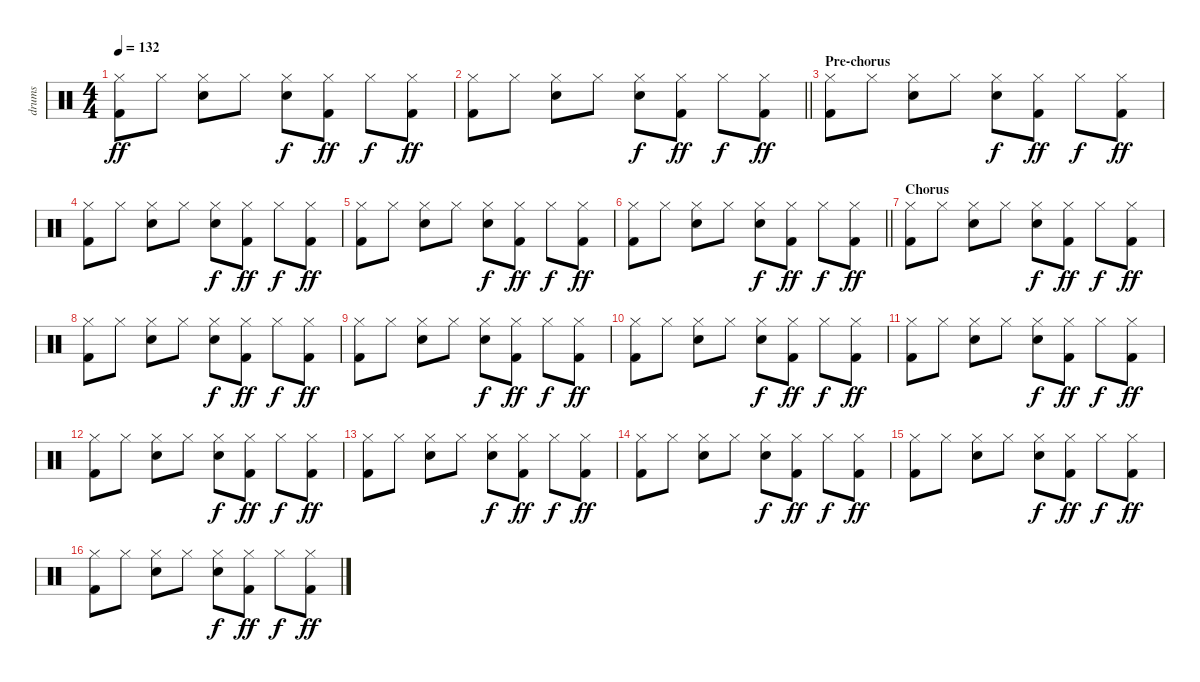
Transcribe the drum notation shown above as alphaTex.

\track ("drums" "drums") {instrument percussion}
\staff {score}
\articulation defaults
\ts (4 4)
\tempo 132
\clef neutral
\ks c
("Hi-Hat (closed)" "Kick (hit) 2").8{dy ff} "Hi-Hat (closed)".8 ("Hi-Hat (closed)" "Electric Snare (hit)").8 "Hi-Hat (closed)".8 ("Hi-Hat (closed)" "Electric Snare (hit)").8{dy f} ("Kick (hit) 2" "Hi-Hat (closed)").8{dy ff} "Hi-Hat (closed)".8{dy f} ("Kick (hit) 2" "Hi-Hat (closed)").8{dy ff} |
\barLineRight lightlight
("Hi-Hat (closed)" "Kick (hit) 2").8 "Hi-Hat (closed)".8 ("Hi-Hat (closed)" "Electric Snare (hit)").8 "Hi-Hat (closed)".8 ("Hi-Hat (closed)" "Electric Snare (hit)").8{dy f} ("Kick (hit) 2" "Hi-Hat (closed)").8{dy ff} "Hi-Hat (closed)".8{dy f} ("Kick (hit) 2" "Hi-Hat (closed)").8{dy ff} |
\section ("" "Pre-chorus")
("Hi-Hat (closed)" "Kick (hit) 2").8 "Hi-Hat (closed)".8 ("Hi-Hat (closed)" "Electric Snare (hit)").8 "Hi-Hat (closed)".8 ("Hi-Hat (closed)" "Electric Snare (hit)").8{dy f} ("Kick (hit) 2" "Hi-Hat (closed)").8{dy ff} "Hi-Hat (closed)".8{dy f} ("Kick (hit) 2" "Hi-Hat (closed)").8{dy ff} |
("Hi-Hat (closed)" "Kick (hit) 2").8 "Hi-Hat (closed)".8 ("Hi-Hat (closed)" "Electric Snare (hit)").8 "Hi-Hat (closed)".8 ("Hi-Hat (closed)" "Electric Snare (hit)").8{dy f} ("Kick (hit) 2" "Hi-Hat (closed)").8{dy ff} "Hi-Hat (closed)".8{dy f} ("Kick (hit) 2" "Hi-Hat (closed)").8{dy ff} |
("Hi-Hat (closed)" "Kick (hit) 2").8 "Hi-Hat (closed)".8 ("Hi-Hat (closed)" "Electric Snare (hit)").8 "Hi-Hat (closed)".8 ("Hi-Hat (closed)" "Electric Snare (hit)").8{dy f} ("Kick (hit) 2" "Hi-Hat (closed)").8{dy ff} "Hi-Hat (closed)".8{dy f} ("Kick (hit) 2" "Hi-Hat (closed)").8{dy ff} |
\barLineRight lightlight
("Hi-Hat (closed)" "Kick (hit) 2").8 "Hi-Hat (closed)".8 ("Hi-Hat (closed)" "Electric Snare (hit)").8 "Hi-Hat (closed)".8 ("Hi-Hat (closed)" "Electric Snare (hit)").8{dy f} ("Kick (hit) 2" "Hi-Hat (closed)").8{dy ff} "Hi-Hat (closed)".8{dy f} ("Kick (hit) 2" "Hi-Hat (closed)").8{dy ff} |
\section ("" "Chorus")
("Hi-Hat (closed)" "Kick (hit) 2").8 "Hi-Hat (closed)".8 ("Hi-Hat (closed)" "Electric Snare (hit)").8 "Hi-Hat (closed)".8 ("Hi-Hat (closed)" "Electric Snare (hit)").8{dy f} ("Kick (hit) 2" "Hi-Hat (closed)").8{dy ff} "Hi-Hat (closed)".8{dy f} ("Kick (hit) 2" "Hi-Hat (closed)").8{dy ff} |
("Hi-Hat (closed)" "Kick (hit) 2").8 "Hi-Hat (closed)".8 ("Hi-Hat (closed)" "Electric Snare (hit)").8 "Hi-Hat (closed)".8 ("Hi-Hat (closed)" "Electric Snare (hit)").8{dy f} ("Kick (hit) 2" "Hi-Hat (closed)").8{dy ff} "Hi-Hat (closed)".8{dy f} ("Kick (hit) 2" "Hi-Hat (closed)").8{dy ff} |
("Hi-Hat (closed)" "Kick (hit) 2").8 "Hi-Hat (closed)".8 ("Hi-Hat (closed)" "Electric Snare (hit)").8 "Hi-Hat (closed)".8 ("Hi-Hat (closed)" "Electric Snare (hit)").8{dy f} ("Kick (hit) 2" "Hi-Hat (closed)").8{dy ff} "Hi-Hat (closed)".8{dy f} ("Kick (hit) 2" "Hi-Hat (closed)").8{dy ff} |
("Hi-Hat (closed)" "Kick (hit) 2").8 "Hi-Hat (closed)".8 ("Hi-Hat (closed)" "Electric Snare (hit)").8 "Hi-Hat (closed)".8 ("Hi-Hat (closed)" "Electric Snare (hit)").8{dy f} ("Kick (hit) 2" "Hi-Hat (closed)").8{dy ff} "Hi-Hat (closed)".8{dy f} ("Kick (hit) 2" "Hi-Hat (closed)").8{dy ff} |
("Hi-Hat (closed)" "Kick (hit) 2").8 "Hi-Hat (closed)".8 ("Hi-Hat (closed)" "Electric Snare (hit)").8 "Hi-Hat (closed)".8 ("Hi-Hat (closed)" "Electric Snare (hit)").8{dy f} ("Kick (hit) 2" "Hi-Hat (closed)").8{dy ff} "Hi-Hat (closed)".8{dy f} ("Kick (hit) 2" "Hi-Hat (closed)").8{dy ff} |
("Hi-Hat (closed)" "Kick (hit) 2").8 "Hi-Hat (closed)".8 ("Hi-Hat (closed)" "Electric Snare (hit)").8 "Hi-Hat (closed)".8 ("Hi-Hat (closed)" "Electric Snare (hit)").8{dy f} ("Kick (hit) 2" "Hi-Hat (closed)").8{dy ff} "Hi-Hat (closed)".8{dy f} ("Kick (hit) 2" "Hi-Hat (closed)").8{dy ff} |
("Hi-Hat (closed)" "Kick (hit) 2").8 "Hi-Hat (closed)".8 ("Hi-Hat (closed)" "Electric Snare (hit)").8 "Hi-Hat (closed)".8 ("Hi-Hat (closed)" "Electric Snare (hit)").8{dy f} ("Kick (hit) 2" "Hi-Hat (closed)").8{dy ff} "Hi-Hat (closed)".8{dy f} ("Kick (hit) 2" "Hi-Hat (closed)").8{dy ff} |
("Hi-Hat (closed)" "Kick (hit) 2").8 "Hi-Hat (closed)".8 ("Hi-Hat (closed)" "Electric Snare (hit)").8 "Hi-Hat (closed)".8 ("Hi-Hat (closed)" "Electric Snare (hit)").8{dy f} ("Kick (hit) 2" "Hi-Hat (closed)").8{dy ff} "Hi-Hat (closed)".8{dy f} ("Kick (hit) 2" "Hi-Hat (closed)").8{dy ff} |
("Hi-Hat (closed)" "Kick (hit) 2").8 "Hi-Hat (closed)".8 ("Hi-Hat (closed)" "Electric Snare (hit)").8 "Hi-Hat (closed)".8 ("Hi-Hat (closed)" "Electric Snare (hit)").8{dy f} ("Kick (hit) 2" "Hi-Hat (closed)").8{dy ff} "Hi-Hat (closed)".8{dy f} ("Kick (hit) 2" "Hi-Hat (closed)").8{dy ff} |
("Hi-Hat (closed)" "Kick (hit) 2").8 "Hi-Hat (closed)".8 ("Hi-Hat (closed)" "Electric Snare (hit)").8 "Hi-Hat (closed)".8 ("Hi-Hat (closed)" "Electric Snare (hit)").8{dy f} ("Kick (hit) 2" "Hi-Hat (closed)").8{dy ff} "Hi-Hat (closed)".8{dy f} ("Kick (hit) 2" "Hi-Hat (closed)").8{dy ff}
